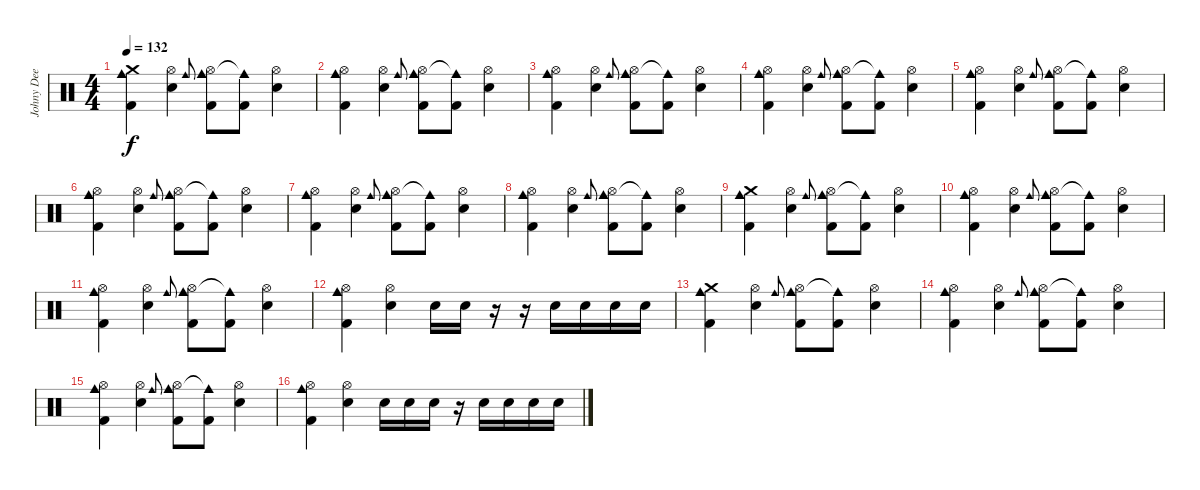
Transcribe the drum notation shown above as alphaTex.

\track ("Johny Dee" "Johny Dee") {instrument percussion}
\staff {score}
\articulation defaults
\ts (4 4)
\tempo 132
\clef neutral
\ks c
("Cowbell medium (hit)" "Kick (hit) 2" "Crash medium (hit)").4{dy f} ("Snare (hit) 2" "Hi-Hat (open)").4 "Cowbell medium (hit)".8{gr onbeat} ("Cowbell medium (hit)" "Kick (hit) 2" "Hi-Hat (open)").8 ("Cowbell medium (hit)"{t} "Kick (hit) 2").8 ("Snare (hit) 2" "Hi-Hat (open)").4 |
("Cowbell medium (hit)" "Kick (hit) 2" "Hi-Hat (open)").4 ("Snare (hit) 2" "Hi-Hat (open)").4 "Cowbell medium (hit)".8{gr onbeat} ("Cowbell medium (hit)" "Kick (hit) 2" "Hi-Hat (open)").8 ("Cowbell medium (hit)"{t} "Kick (hit) 2").8 ("Snare (hit) 2" "Hi-Hat (open)").4 |
("Cowbell medium (hit)" "Kick (hit) 2" "Hi-Hat (open)").4 ("Snare (hit) 2" "Hi-Hat (open)").4 "Cowbell medium (hit)".8{gr onbeat} ("Cowbell medium (hit)" "Kick (hit) 2" "Hi-Hat (open)").8 ("Cowbell medium (hit)"{t} "Kick (hit) 2").8 ("Snare (hit) 2" "Hi-Hat (open)").4 |
("Cowbell medium (hit)" "Kick (hit) 2" "Hi-Hat (open)").4 ("Snare (hit) 2" "Hi-Hat (open)").4 "Cowbell medium (hit)".8{gr onbeat} ("Cowbell medium (hit)" "Kick (hit) 2" "Hi-Hat (open)").8 ("Cowbell medium (hit)"{t} "Kick (hit) 2").8 ("Snare (hit) 2" "Hi-Hat (open)").4 |
("Cowbell medium (hit)" "Kick (hit) 2" "Hi-Hat (open)").4 ("Snare (hit) 2" "Hi-Hat (open)").4 "Cowbell medium (hit)".8{gr onbeat} ("Cowbell medium (hit)" "Kick (hit) 2" "Hi-Hat (open)").8 ("Cowbell medium (hit)"{t} "Kick (hit) 2").8 ("Snare (hit) 2" "Hi-Hat (open)").4 |
("Cowbell medium (hit)" "Kick (hit) 2" "Hi-Hat (open)").4 ("Snare (hit) 2" "Hi-Hat (open)").4 "Cowbell medium (hit)".8{gr onbeat} ("Cowbell medium (hit)" "Kick (hit) 2" "Hi-Hat (open)").8 ("Cowbell medium (hit)"{t} "Kick (hit) 2").8 ("Snare (hit) 2" "Hi-Hat (open)").4 |
("Cowbell medium (hit)" "Kick (hit) 2" "Hi-Hat (open)").4 ("Snare (hit) 2" "Hi-Hat (open)").4 "Cowbell medium (hit)".8{gr onbeat} ("Cowbell medium (hit)" "Kick (hit) 2" "Hi-Hat (open)").8 ("Cowbell medium (hit)"{t} "Kick (hit) 2").8 ("Snare (hit) 2" "Hi-Hat (open)").4 |
("Cowbell medium (hit)" "Kick (hit) 2" "Hi-Hat (open)").4 ("Snare (hit) 2" "Hi-Hat (open)").4 "Cowbell medium (hit)".8{gr onbeat} ("Cowbell medium (hit)" "Kick (hit) 2" "Hi-Hat (open)").8 ("Cowbell medium (hit)"{t} "Kick (hit) 2").8 ("Snare (hit) 2" "Hi-Hat (open)").4 |
("Cowbell medium (hit)" "Kick (hit) 2" "Crash medium (hit)").4 ("Snare (hit) 2" "Hi-Hat (open)").4 "Cowbell medium (hit)".8{gr onbeat} ("Cowbell medium (hit)" "Kick (hit) 2" "Hi-Hat (open)").8 ("Cowbell medium (hit)"{t} "Kick (hit) 2").8 ("Snare (hit) 2" "Hi-Hat (open)").4 |
("Cowbell medium (hit)" "Kick (hit) 2" "Hi-Hat (open)").4 ("Snare (hit) 2" "Hi-Hat (open)").4 "Cowbell medium (hit)".8{gr onbeat} ("Cowbell medium (hit)" "Kick (hit) 2" "Hi-Hat (open)").8 ("Cowbell medium (hit)"{t} "Kick (hit) 2").8 ("Snare (hit) 2" "Hi-Hat (open)").4 |
("Cowbell medium (hit)" "Kick (hit) 2" "Hi-Hat (open)").4 ("Snare (hit) 2" "Hi-Hat (open)").4 "Cowbell medium (hit)".8{gr onbeat} ("Cowbell medium (hit)" "Kick (hit) 2" "Hi-Hat (open)").8 ("Cowbell medium (hit)"{t} "Kick (hit) 2").8 ("Snare (hit) 2" "Hi-Hat (open)").4 |
("Cowbell medium (hit)" "Kick (hit) 2" "Hi-Hat (open)").4 ("Snare (hit) 2" "Hi-Hat (open)").4 "Snare (hit) 2".16 "Snare (hit) 2".16 r.16 r.16 "Snare (hit) 2".16 "Snare (hit) 2".16 "Snare (hit) 2".16 "Snare (hit) 2".16 |
("Cowbell medium (hit)" "Kick (hit) 2" "Crash medium (hit)").4 ("Snare (hit) 2" "Hi-Hat (open)").4 "Cowbell medium (hit)".8{gr onbeat} ("Cowbell medium (hit)" "Kick (hit) 2" "Hi-Hat (open)").8 ("Cowbell medium (hit)"{t} "Kick (hit) 2").8 ("Snare (hit) 2" "Hi-Hat (open)").4 |
("Cowbell medium (hit)" "Kick (hit) 2" "Hi-Hat (open)").4 ("Snare (hit) 2" "Hi-Hat (open)").4 "Cowbell medium (hit)".8{gr onbeat} ("Cowbell medium (hit)" "Kick (hit) 2" "Hi-Hat (open)").8 ("Cowbell medium (hit)"{t} "Kick (hit) 2").8 ("Snare (hit) 2" "Hi-Hat (open)").4 |
("Cowbell medium (hit)" "Kick (hit) 2" "Hi-Hat (open)").4 ("Snare (hit) 2" "Hi-Hat (open)").4 "Cowbell medium (hit)".8{gr onbeat} ("Cowbell medium (hit)" "Kick (hit) 2" "Hi-Hat (open)").8 ("Cowbell medium (hit)"{t} "Kick (hit) 2").8 ("Snare (hit) 2" "Hi-Hat (open)").4 |
("Cowbell medium (hit)" "Kick (hit) 2" "Hi-Hat (open)").4 ("Snare (hit) 2" "Hi-Hat (open)").4 "Snare (hit) 2".16 "Snare (hit) 2".16 "Snare (hit) 2".16 r.16 "Snare (hit) 2".16 "Snare (hit) 2".16 "Snare (hit) 2".16 "Snare (hit) 2".16
